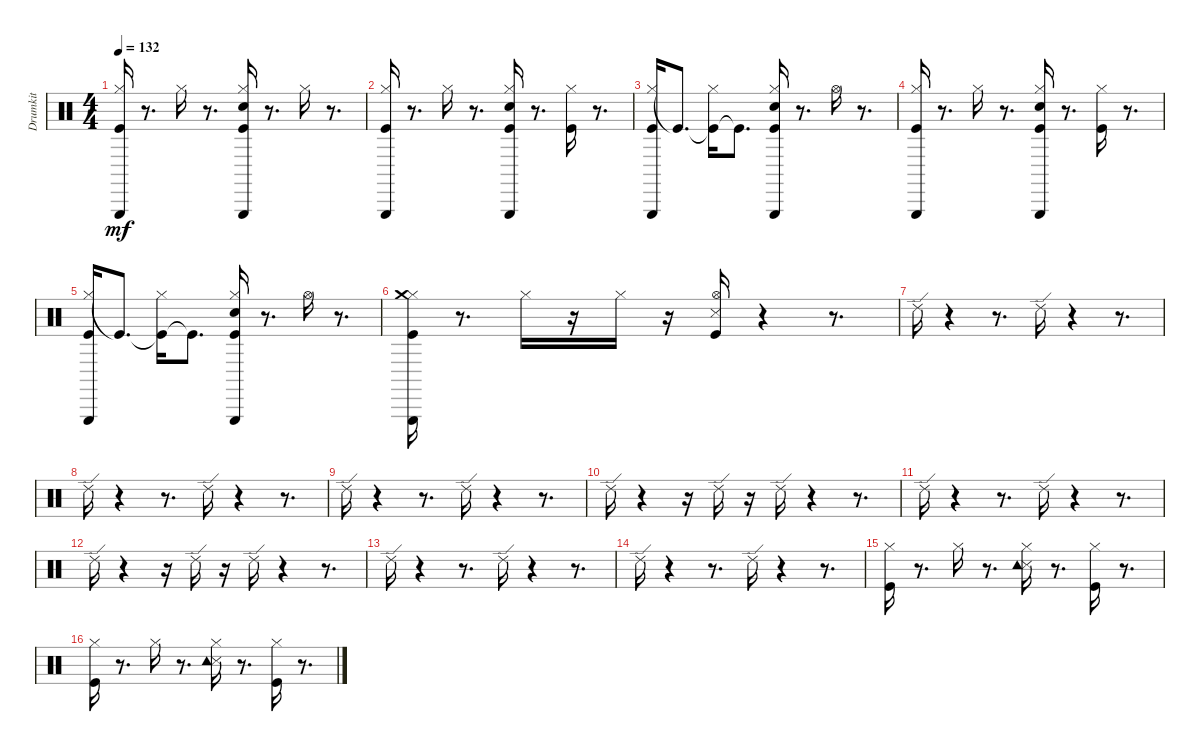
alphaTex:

\track ("Drumkit" "Drumkit") {instrument percussion}
\staff {score}
\articulation defaults
\ts (4 4)
\tempo 132
\clef neutral
\ks aminor
("Kick (hit)" "Hi-Hat (closed)" "Triangle (hit)").16{dy mf} r.8{d} "Hi-Hat (closed)".16 r.8{d} ("Kick (hit)" "Snare (hit) 2" "Hi-Hat (closed)" "Triangle (hit)").16 r.8{d} "Hi-Hat (closed)".16 r.8{d} |
("Kick (hit)" "Hi-Hat (closed)" "Triangle (hit)").16 r.8{d} "Hi-Hat (closed)".16 r.8{d} ("Kick (hit)" "Snare (hit) 2" "Hi-Hat (closed)" "Triangle (hit)").16 r.8{d} ("Kick (hit)" "Hi-Hat (closed)").16 r.8{d} |
("Hi-Hat (closed)" "Triangle (hit)" "Kick (hit)").16 "Kick (hit)"{t}.8{d} ("Kick (hit)"{t} "Hi-Hat (closed)").16 "Kick (hit)"{t}.8{d} ("Kick (hit)" "Snare (hit) 2" "Hi-Hat (closed)" "Triangle (hit)").16 r.8{d} "Hi-Hat (open)".16 r.8{d} |
("Kick (hit)" "Hi-Hat (closed)" "Triangle (hit)").16 r.8{d} "Hi-Hat (closed)".16 r.8{d} ("Kick (hit)" "Snare (hit) 2" "Hi-Hat (closed)" "Triangle (hit)").16 r.8{d} ("Kick (hit)" "Hi-Hat (closed)").16 r.8{d} |
("Hi-Hat (closed)" "Triangle (hit)" "Kick (hit)").16 "Kick (hit)"{t}.8{d} ("Kick (hit)"{t} "Hi-Hat (closed)").16 "Kick (hit)"{t}.8{d} ("Kick (hit)" "Snare (hit) 2" "Hi-Hat (closed)" "Triangle (hit)").16 r.8{d} "Hi-Hat (open)".16 r.8{d} |
("Kick (hit)" "Hi-Hat (closed)" "Crash medium (hit)" "Triangle (hit)").16 r.8{d} "Hi-Hat (closed)".16 r.16 "Hi-Hat (closed)".16 r.16 ("Kick (hit)" "Snare (side stick) 3" "Hi-Hat (open)").16 r.4 r.8{d} |
"Ride (edge) 2".16 r.4 r.8{d} "Ride (edge) 2".16 r.4 r.8{d} |
"Ride (edge) 2".16 r.4 r.8{d} "Ride (edge) 2".16 r.4 r.8{d} |
"Ride (edge) 2".16 r.4 r.8{d} "Ride (edge) 2".16 r.4 r.8{d} |
"Ride (edge) 2".16 r.4 r.16 "Ride (edge) 2".16 r.16 "Ride (edge) 2".16 r.4 r.8{d} |
"Ride (edge) 2".16 r.4 r.8{d} "Ride (edge) 2".16 r.4 r.8{d} |
"Ride (edge) 2".16 r.4 r.16 "Ride (edge) 2".16 r.16 "Ride (edge) 2".16 r.4 r.8{d} |
"Ride (edge) 2".16 r.4 r.8{d} "Ride (edge) 2".16 r.4 r.8{d} |
"Ride (edge) 2".16 r.4 r.8{d} "Ride (edge) 2".16 r.4 r.8{d} |
("Kick (hit)" "Hi-Hat (closed)").16 r.8{d} "Hi-Hat (closed)".16 r.8{d} ("Snare (side stick) 3" "Hi-Hat (closed)" "Tambourine (hit)").16 r.8{d} ("Kick (hit)" "Hi-Hat (closed)").16 r.8{d} |
("Kick (hit)" "Hi-Hat (closed)").16 r.8{d} "Hi-Hat (closed)".16 r.8{d} ("Snare (side stick) 3" "Hi-Hat (closed)" "Tambourine (hit)").16 r.8{d} ("Kick (hit)" "Hi-Hat (closed)").16 r.8{d}
